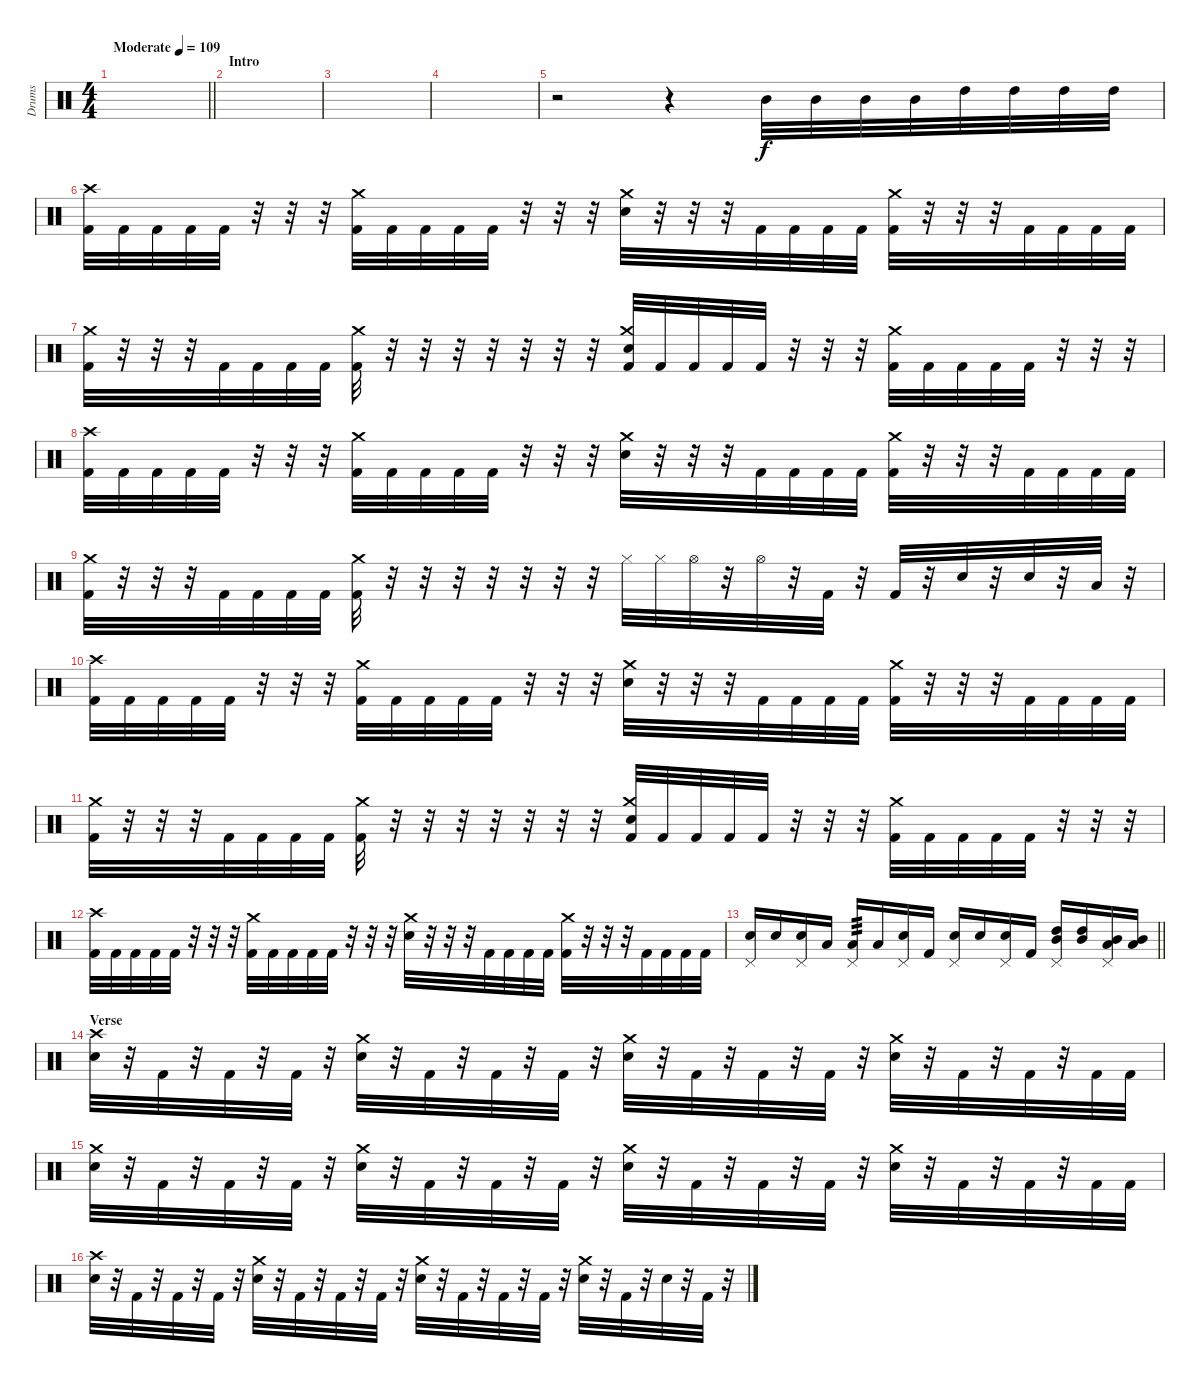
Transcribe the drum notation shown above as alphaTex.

\track ("Drums" "Drums") {instrument percussion}
\staff {score}
\articulation defaults
\ts (4 4)
\tempo (109 "Moderate")
\clef neutral
\barLineRight lightlight
\ks c
|
\section ("" "Intro")
|
|
|
r.2 r.4 "Mid Tom (hit)".32 "Mid Tom (hit)".32 "Mid Tom (hit)".32 "Mid Tom (hit)".32 "High Tom (hit)".32 "High Tom (hit)".32 "High Tom (hit)".32 "High Tom (hit)".32 |
("Crash high (hit)" "Kick (hit) 2").32 "Kick (hit) 2".32 "Kick (hit) 2".32 "Kick (hit) 2".32 "Kick (hit) 2".32 r.32 r.32 r.32 ("Crash medium (hit)" "Kick (hit) 2").32 "Kick (hit) 2".32 "Kick (hit) 2".32 "Kick (hit) 2".32 "Kick (hit) 2".32 r.32 r.32 r.32 ("Crash medium (hit)" "Snare (hit) 2").32 r.32 r.32 r.32 "Kick (hit) 2".32 "Kick (hit) 2".32 "Kick (hit) 2".32 "Kick (hit) 2".32 ("Crash medium (hit)" "Kick (hit) 2").32 r.32 r.32 r.32 "Kick (hit) 2".32 "Kick (hit) 2".32 "Kick (hit) 2".32 "Kick (hit) 2".32 |
("Crash medium (hit)" "Kick (hit) 2").32 r.32 r.32 r.32 "Kick (hit) 2".32 "Kick (hit) 2".32 "Kick (hit) 2".32 "Kick (hit) 2".32 ("Crash medium (hit)" "Kick (hit) 2").32 r.32 r.32 r.32 r.32 r.32 r.32 r.32 ("Crash medium (hit)" "Snare (hit) 2" "Kick (hit) 2").32 "Kick (hit) 2".32 "Kick (hit) 2".32 "Kick (hit) 2".32 "Kick (hit) 2".32 r.32 r.32 r.32 ("Crash medium (hit)" "Kick (hit) 2").32 "Kick (hit) 2".32 "Kick (hit) 2".32 "Kick (hit) 2".32 "Kick (hit) 2".32 r.32 r.32 r.32 |
("Crash high (hit)" "Kick (hit) 2").32 "Kick (hit) 2".32 "Kick (hit) 2".32 "Kick (hit) 2".32 "Kick (hit) 2".32 r.32 r.32 r.32 ("Crash medium (hit)" "Kick (hit) 2").32 "Kick (hit) 2".32 "Kick (hit) 2".32 "Kick (hit) 2".32 "Kick (hit) 2".32 r.32 r.32 r.32 ("Crash medium (hit)" "Snare (hit) 2").32 r.32 r.32 r.32 "Kick (hit) 2".32 "Kick (hit) 2".32 "Kick (hit) 2".32 "Kick (hit) 2".32 ("Crash medium (hit)" "Kick (hit) 2").32 r.32 r.32 r.32 "Kick (hit) 2".32 "Kick (hit) 2".32 "Kick (hit) 2".32 "Kick (hit) 2".32 |
("Crash medium (hit)" "Kick (hit) 2").32 r.32 r.32 r.32 "Kick (hit) 2".32 "Kick (hit) 2".32 "Kick (hit) 2".32 "Kick (hit) 2".32 ("Crash medium (hit)" "Kick (hit) 2").32 r.32 r.32 r.32 r.32 r.32 r.32 r.32 "Hi-Hat (closed)".32 "Hi-Hat (closed)".32 "Hi-Hat (open)".32 r.32 "Hi-Hat (open)".32 r.32 "Kick (hit) 2".32 r.32 "Kick (hit) 2".32 r.32 "Snare (hit) 2".32 r.32 "Snare (hit) 2".32 r.32 "Low Tom (hit)".32 r.32 |
("Crash high (hit)" "Kick (hit) 2").32 "Kick (hit) 2".32 "Kick (hit) 2".32 "Kick (hit) 2".32 "Kick (hit) 2".32 r.32 r.32 r.32 ("Crash medium (hit)" "Kick (hit) 2").32 "Kick (hit) 2".32 "Kick (hit) 2".32 "Kick (hit) 2".32 "Kick (hit) 2".32 r.32 r.32 r.32 ("Crash medium (hit)" "Snare (hit) 2").32 r.32 r.32 r.32 "Kick (hit) 2".32 "Kick (hit) 2".32 "Kick (hit) 2".32 "Kick (hit) 2".32 ("Crash medium (hit)" "Kick (hit) 2").32 r.32 r.32 r.32 "Kick (hit) 2".32 "Kick (hit) 2".32 "Kick (hit) 2".32 "Kick (hit) 2".32 |
("Crash medium (hit)" "Kick (hit) 2").32 r.32 r.32 r.32 "Kick (hit) 2".32 "Kick (hit) 2".32 "Kick (hit) 2".32 "Kick (hit) 2".32 ("Crash medium (hit)" "Kick (hit) 2").32 r.32 r.32 r.32 r.32 r.32 r.32 r.32 ("Crash medium (hit)" "Snare (hit) 2" "Kick (hit) 2").32 "Kick (hit) 2".32 "Kick (hit) 2".32 "Kick (hit) 2".32 "Kick (hit) 2".32 r.32 r.32 r.32 ("Crash medium (hit)" "Kick (hit) 2").32 "Kick (hit) 2".32 "Kick (hit) 2".32 "Kick (hit) 2".32 "Kick (hit) 2".32 r.32 r.32 r.32 |
("Crash high (hit)" "Kick (hit) 2").32 "Kick (hit) 2".32 "Kick (hit) 2".32 "Kick (hit) 2".32 "Kick (hit) 2".32 r.32 r.32 r.32 ("Crash medium (hit)" "Kick (hit) 2").32 "Kick (hit) 2".32 "Kick (hit) 2".32 "Kick (hit) 2".32 "Kick (hit) 2".32 r.32 r.32 r.32 ("Crash medium (hit)" "Snare (hit) 2").32 r.32 r.32 r.32 "Kick (hit) 2".32 "Kick (hit) 2".32 "Kick (hit) 2".32 "Kick (hit) 2".32 ("Crash medium (hit)" "Kick (hit) 2").32 r.32 r.32 r.32 "Kick (hit) 2".32 "Kick (hit) 2".32 "Kick (hit) 2".32 "Kick (hit) 2".32 |
\barLineRight lightlight
("Pedal Hi-Hat (hit)" "Snare (hit) 2").16 "Snare (hit) 2".16 ("Pedal Hi-Hat (hit)" "Snare (hit) 2").16 "Low Tom (hit)".16 ("Pedal Hi-Hat (hit)" "Low Tom (hit)").16{tp 3} "Low Tom (hit)".16 ("Pedal Hi-Hat (hit)" "Snare (hit) 2").16 "Kick (hit) 2".16 ("Pedal Hi-Hat (hit)" "Snare (hit) 2").16 "Snare (hit) 2".16 ("Pedal Hi-Hat (hit)" "Snare (hit) 2").16 "Kick (hit) 2".16 ("Pedal Hi-Hat (hit)" "Mid Tom (hit)" "High Tom (hit)").16 ("Mid Tom (hit)" "High Tom (hit)").16 ("Pedal Hi-Hat (hit)" "Mid Tom (hit)" "Low Tom (hit)").16 ("Mid Tom (hit)" "Low Tom (hit)").16 |
\section ("" "Verse")
("Crash high (hit)" "Snare (hit) 2").32 r.32 "Kick (hit) 2".32 r.32 "Kick (hit) 2".32 r.32 "Kick (hit) 2".32 r.32 ("Crash medium (hit)" "Snare (hit) 2").32 r.32 "Kick (hit) 2".32 r.32 "Kick (hit) 2".32 r.32 "Kick (hit) 2".32 r.32 ("Crash medium (hit)" "Snare (hit) 2").32 r.32 "Kick (hit) 2".32 r.32 "Kick (hit) 2".32 r.32 "Kick (hit) 2".32 r.32 ("Crash medium (hit)" "Snare (hit) 2").32 r.32 "Kick (hit) 2".32 r.32 "Kick (hit) 2".32 r.32 "Kick (hit) 2".32 "Kick (hit) 2".32 |
("Crash medium (hit)" "Snare (hit) 2").32 r.32 "Kick (hit) 2".32 r.32 "Kick (hit) 2".32 r.32 "Kick (hit) 2".32 r.32 ("Crash medium (hit)" "Snare (hit) 2").32 r.32 "Kick (hit) 2".32 r.32 "Kick (hit) 2".32 r.32 "Kick (hit) 2".32 r.32 ("Crash medium (hit)" "Snare (hit) 2").32 r.32 "Kick (hit) 2".32 r.32 "Kick (hit) 2".32 r.32 "Kick (hit) 2".32 r.32 ("Crash medium (hit)" "Snare (hit) 2").32 r.32 "Kick (hit) 2".32 r.32 "Kick (hit) 2".32 r.32 "Kick (hit) 2".32 "Kick (hit) 2".32 |
("Crash high (hit)" "Snare (hit) 2").32 r.32 "Kick (hit) 2".32 r.32 "Kick (hit) 2".32 r.32 "Kick (hit) 2".32 r.32 ("Crash medium (hit)" "Snare (hit) 2").32 r.32 "Kick (hit) 2".32 r.32 "Kick (hit) 2".32 r.32 "Kick (hit) 2".32 r.32 ("Crash medium (hit)" "Snare (hit) 2").32 r.32 "Kick (hit) 2".32 r.32 "Kick (hit) 2".32 r.32 "Kick (hit) 2".32 r.32 ("Crash medium (hit)" "Snare (hit) 2").32 r.32 "Kick (hit) 2".32 r.32 "Snare (hit) 2".32 r.32 "Kick (hit) 2".32 r.32
